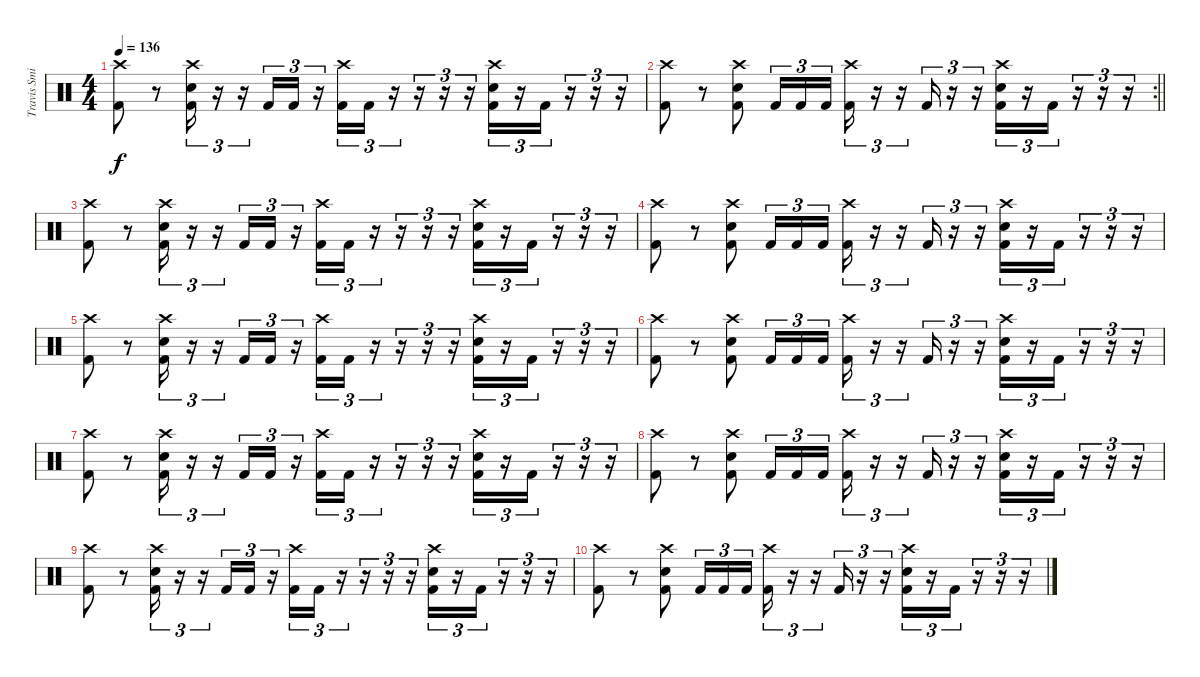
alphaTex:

\track ("Travis Smith" "Travis Smi") {instrument percussion}
\staff {score}
\articulation defaults
\ts (4 4)
\tempo 136
\clef neutral
\ks c
("Crash high (hit)" "Kick (hit) 2").8{dy f} r.8 ("Crash high (hit)" "Snare (hit) 2" "Kick (hit) 2").16{tu (3 2)} r.16{tu (3 2)} r.16{tu (3 2)} "Kick (hit) 2".16{tu (3 2)} "Kick (hit) 2".16{tu (3 2)} r.16{tu (3 2)} ("Crash high (hit)" "Kick (hit) 2").16{tu (3 2)} "Kick (hit) 2".16{tu (3 2)} r.16{tu (3 2)} r.16{tu (3 2)} r.16{tu (3 2)} r.16{tu (3 2)} ("Crash high (hit)" "Snare (hit) 2" "Kick (hit) 2").16{tu (3 2)} r.16{tu (3 2)} "Kick (hit) 2".16{tu (3 2)} r.16{tu (3 2)} r.16{tu (3 2)} r.16{tu (3 2)} |
\rc 2
\barLineRight lightlight
("Crash high (hit)" "Kick (hit) 2").8 r.8 ("Crash high (hit)" "Snare (hit) 2" "Kick (hit) 2").8 "Kick (hit) 2".16{tu (3 2)} "Kick (hit) 2".16{tu (3 2)} "Kick (hit) 2".16{tu (3 2)} ("Crash high (hit)" "Kick (hit) 2").16{tu (3 2)} r.16{tu (3 2)} r.16{tu (3 2)} "Kick (hit) 2".16{tu (3 2)} r.16{tu (3 2)} r.16{tu (3 2)} ("Crash high (hit)" "Snare (hit) 2" "Kick (hit) 2").16{tu (3 2)} r.16{tu (3 2)} "Kick (hit) 2".16{tu (3 2)} r.16{tu (3 2)} r.16{tu (3 2)} r.16{tu (3 2)} |
("Crash high (hit)" "Kick (hit) 2").8{volume 8} r.8 ("Crash high (hit)" "Snare (hit) 2" "Kick (hit) 2").16{tu (3 2)} r.16{tu (3 2)} r.16{tu (3 2)} "Kick (hit) 2".16{tu (3 2)} "Kick (hit) 2".16{tu (3 2)} r.16{tu (3 2)} ("Crash high (hit)" "Kick (hit) 2").16{tu (3 2)} "Kick (hit) 2".16{tu (3 2)} r.16{tu (3 2)} r.16{tu (3 2)} r.16{tu (3 2)} r.16{tu (3 2)} ("Crash high (hit)" "Snare (hit) 2" "Kick (hit) 2").16{tu (3 2)} r.16{tu (3 2)} "Kick (hit) 2".16{tu (3 2)} r.16{tu (3 2)} r.16{tu (3 2)} r.16{tu (3 2)} |
("Crash high (hit)" "Kick (hit) 2").8 r.8 ("Crash high (hit)" "Snare (hit) 2" "Kick (hit) 2").8 "Kick (hit) 2".16{tu (3 2)} "Kick (hit) 2".16{tu (3 2)} "Kick (hit) 2".16{tu (3 2)} ("Crash high (hit)" "Kick (hit) 2").16{tu (3 2)} r.16{tu (3 2)} r.16{tu (3 2)} "Kick (hit) 2".16{tu (3 2)} r.16{tu (3 2)} r.16{tu (3 2)} ("Crash high (hit)" "Snare (hit) 2" "Kick (hit) 2").16{tu (3 2)} r.16{tu (3 2)} "Kick (hit) 2".16{tu (3 2)} r.16{tu (3 2)} r.16{tu (3 2)} r.16{tu (3 2)} |
("Crash high (hit)" "Kick (hit) 2").8 r.8 ("Crash high (hit)" "Snare (hit) 2" "Kick (hit) 2").16{tu (3 2)} r.16{tu (3 2)} r.16{tu (3 2)} "Kick (hit) 2".16{tu (3 2)} "Kick (hit) 2".16{tu (3 2)} r.16{tu (3 2)} ("Crash high (hit)" "Kick (hit) 2").16{tu (3 2)} "Kick (hit) 2".16{tu (3 2)} r.16{tu (3 2)} r.16{tu (3 2)} r.16{tu (3 2)} r.16{tu (3 2)} ("Crash high (hit)" "Snare (hit) 2" "Kick (hit) 2").16{tu (3 2)} r.16{tu (3 2)} "Kick (hit) 2".16{tu (3 2)} r.16{tu (3 2)} r.16{tu (3 2)} r.16{tu (3 2)} |
("Crash high (hit)" "Kick (hit) 2").8 r.8 ("Crash high (hit)" "Snare (hit) 2" "Kick (hit) 2").8 "Kick (hit) 2".16{tu (3 2)} "Kick (hit) 2".16{tu (3 2)} "Kick (hit) 2".16{tu (3 2)} ("Crash high (hit)" "Kick (hit) 2").16{tu (3 2)} r.16{tu (3 2)} r.16{tu (3 2)} "Kick (hit) 2".16{tu (3 2)} r.16{tu (3 2)} r.16{tu (3 2)} ("Crash high (hit)" "Snare (hit) 2" "Kick (hit) 2").16{tu (3 2)} r.16{tu (3 2)} "Kick (hit) 2".16{tu (3 2)} r.16{tu (3 2)} r.16{tu (3 2)} r.16{tu (3 2)} |
("Crash high (hit)" "Kick (hit) 2").8{volume 0} r.8 ("Crash high (hit)" "Snare (hit) 2" "Kick (hit) 2").16{tu (3 2)} r.16{tu (3 2)} r.16{tu (3 2)} "Kick (hit) 2".16{tu (3 2)} "Kick (hit) 2".16{tu (3 2)} r.16{tu (3 2)} ("Crash high (hit)" "Kick (hit) 2").16{tu (3 2)} "Kick (hit) 2".16{tu (3 2)} r.16{tu (3 2)} r.16{tu (3 2)} r.16{tu (3 2)} r.16{tu (3 2)} ("Crash high (hit)" "Snare (hit) 2" "Kick (hit) 2").16{tu (3 2)} r.16{tu (3 2)} "Kick (hit) 2".16{tu (3 2)} r.16{tu (3 2)} r.16{tu (3 2)} r.16{tu (3 2)} |
("Crash high (hit)" "Kick (hit) 2").8 r.8 ("Crash high (hit)" "Snare (hit) 2" "Kick (hit) 2").8 "Kick (hit) 2".16{tu (3 2)} "Kick (hit) 2".16{tu (3 2)} "Kick (hit) 2".16{tu (3 2)} ("Crash high (hit)" "Kick (hit) 2").16{tu (3 2)} r.16{tu (3 2)} r.16{tu (3 2)} "Kick (hit) 2".16{tu (3 2)} r.16{tu (3 2)} r.16{tu (3 2)} ("Crash high (hit)" "Snare (hit) 2" "Kick (hit) 2").16{tu (3 2)} r.16{tu (3 2)} "Kick (hit) 2".16{tu (3 2)} r.16{tu (3 2)} r.16{tu (3 2)} r.16{tu (3 2)} |
("Crash high (hit)" "Kick (hit) 2").8 r.8 ("Crash high (hit)" "Snare (hit) 2" "Kick (hit) 2").16{tu (3 2)} r.16{tu (3 2)} r.16{tu (3 2)} "Kick (hit) 2".16{tu (3 2)} "Kick (hit) 2".16{tu (3 2)} r.16{tu (3 2)} ("Crash high (hit)" "Kick (hit) 2").16{tu (3 2)} "Kick (hit) 2".16{tu (3 2)} r.16{tu (3 2)} r.16{tu (3 2)} r.16{tu (3 2)} r.16{tu (3 2)} ("Crash high (hit)" "Snare (hit) 2" "Kick (hit) 2").16{tu (3 2)} r.16{tu (3 2)} "Kick (hit) 2".16{tu (3 2)} r.16{tu (3 2)} r.16{tu (3 2)} r.16{tu (3 2)} |
("Crash high (hit)" "Kick (hit) 2").8 r.8 ("Crash high (hit)" "Snare (hit) 2" "Kick (hit) 2").8 "Kick (hit) 2".16{tu (3 2)} "Kick (hit) 2".16{tu (3 2)} "Kick (hit) 2".16{tu (3 2)} ("Crash high (hit)" "Kick (hit) 2").16{tu (3 2)} r.16{tu (3 2)} r.16{tu (3 2)} "Kick (hit) 2".16{tu (3 2)} r.16{tu (3 2)} r.16{tu (3 2)} ("Crash high (hit)" "Snare (hit) 2" "Kick (hit) 2").16{tu (3 2)} r.16{tu (3 2)} "Kick (hit) 2".16{tu (3 2)} r.16{tu (3 2)} r.16{tu (3 2)} r.16{tu (3 2)}
